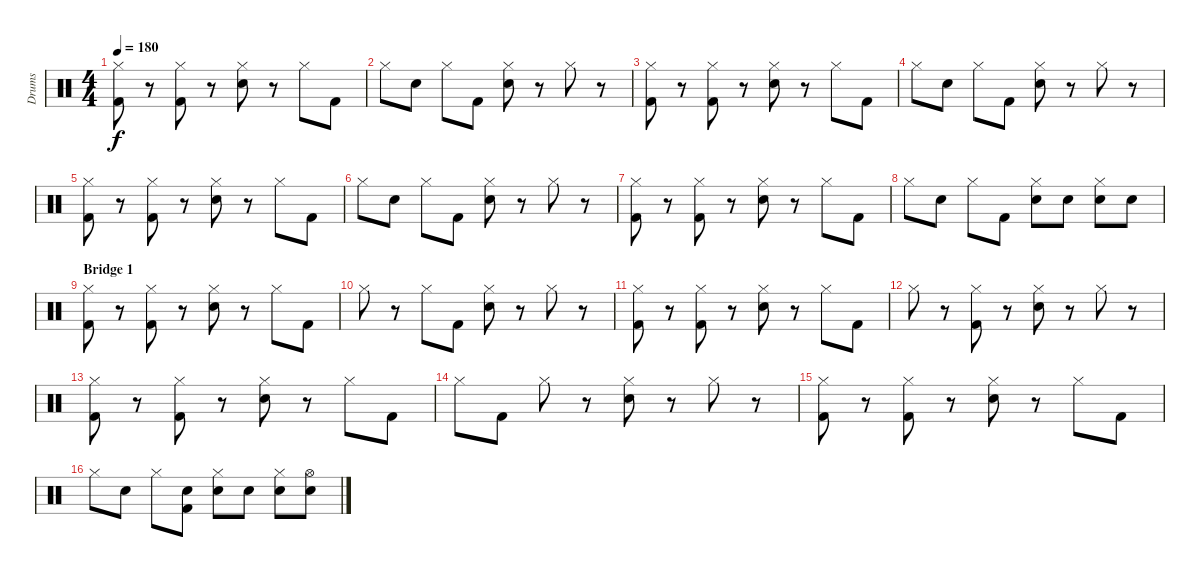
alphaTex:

\track ("Drums" "Drums") {instrument percussion}
\staff {score}
\articulation defaults
\ts (4 4)
\tempo 180
\clef neutral
\ks c
("Hi-Hat (closed)" "Kick (hit) 2").8{dy f} r.8 ("Hi-Hat (closed)" "Kick (hit) 2").8 r.8 ("Hi-Hat (closed)" "Snare (hit) 2").8 r.8 "Hi-Hat (closed)".8 "Kick (hit) 2".8 |
"Hi-Hat (closed)".8 "Snare (hit) 2".8 "Hi-Hat (closed)".8 "Kick (hit) 2".8 ("Hi-Hat (closed)" "Snare (hit) 2").8 r.8 "Hi-Hat (closed)".8 r.8 |
("Hi-Hat (closed)" "Kick (hit) 2").8 r.8 ("Hi-Hat (closed)" "Kick (hit) 2").8 r.8 ("Hi-Hat (closed)" "Snare (hit) 2").8 r.8 "Hi-Hat (closed)".8 "Kick (hit) 2".8 |
"Hi-Hat (closed)".8 "Snare (hit) 2".8 "Hi-Hat (closed)".8 "Kick (hit) 2".8 ("Hi-Hat (closed)" "Snare (hit) 2").8 r.8 "Hi-Hat (closed)".8 r.8 |
("Hi-Hat (closed)" "Kick (hit) 2").8 r.8 ("Hi-Hat (closed)" "Kick (hit) 2").8 r.8 ("Hi-Hat (closed)" "Snare (hit) 2").8 r.8 "Hi-Hat (closed)".8 "Kick (hit) 2".8 |
"Hi-Hat (closed)".8 "Snare (hit) 2".8 "Hi-Hat (closed)".8 "Kick (hit) 2".8 ("Hi-Hat (closed)" "Snare (hit) 2").8 r.8 "Hi-Hat (closed)".8 r.8 |
("Hi-Hat (closed)" "Kick (hit) 2").8 r.8 ("Hi-Hat (closed)" "Kick (hit) 2").8 r.8 ("Hi-Hat (closed)" "Snare (hit) 2").8 r.8 "Hi-Hat (closed)".8 "Kick (hit) 2".8 |
"Hi-Hat (closed)".8 "Snare (hit) 2".8 "Hi-Hat (closed)".8 "Kick (hit) 2".8 ("Hi-Hat (closed)" "Snare (hit) 2").8 "Snare (hit) 2".8 ("Hi-Hat (closed)" "Snare (hit) 2").8 "Snare (hit) 2".8 |
\section ("" "Bridge 1")
("Hi-Hat (closed)" "Kick (hit) 2").8 r.8 ("Hi-Hat (closed)" "Kick (hit) 2").8 r.8 ("Hi-Hat (closed)" "Snare (hit) 2").8 r.8 "Hi-Hat (closed)".8 "Kick (hit) 2".8 |
"Hi-Hat (closed)".8 r.8 "Hi-Hat (closed)".8 "Kick (hit) 2".8 ("Hi-Hat (closed)" "Snare (hit) 2").8 r.8 "Hi-Hat (closed)".8 r.8 |
("Hi-Hat (closed)" "Kick (hit) 2").8 r.8 ("Hi-Hat (closed)" "Kick (hit) 2").8 r.8 ("Hi-Hat (closed)" "Snare (hit) 2").8 r.8 "Hi-Hat (closed)".8 "Kick (hit) 2".8 |
"Hi-Hat (closed)".8 r.8 ("Hi-Hat (closed)" "Kick (hit) 2").8 r.8 ("Hi-Hat (closed)" "Snare (hit) 2").8 r.8 "Hi-Hat (closed)".8 r.8 |
("Hi-Hat (closed)" "Kick (hit) 2").8 r.8 ("Hi-Hat (closed)" "Kick (hit) 2").8 r.8 ("Hi-Hat (closed)" "Snare (hit) 2").8 r.8 "Hi-Hat (closed)".8 "Kick (hit) 2".8 |
"Hi-Hat (closed)".8 "Kick (hit) 2".8 "Hi-Hat (closed)".8 r.8 ("Hi-Hat (closed)" "Snare (hit) 2").8 r.8 "Hi-Hat (closed)".8 r.8 |
("Hi-Hat (closed)" "Kick (hit) 2").8 r.8 ("Hi-Hat (closed)" "Kick (hit) 2").8 r.8 ("Hi-Hat (closed)" "Snare (hit) 2").8 r.8 "Hi-Hat (closed)".8 "Kick (hit) 2".8 |
"Hi-Hat (closed)".8 "Snare (hit) 2".8 "Hi-Hat (closed)".8 ("Snare (hit) 2" "Kick (hit) 2").8 ("Hi-Hat (closed)" "Snare (hit) 2").8 "Snare (hit) 2".8 ("Hi-Hat (closed)" "Snare (hit) 2").8 ("Snare (hit) 2" "Hi-Hat (open)").8
